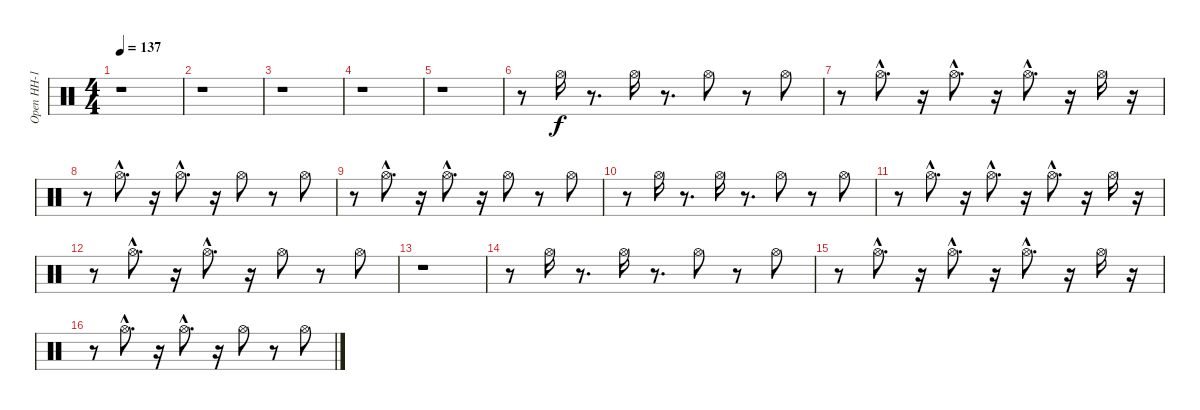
\track ("Open HH-1" "Open HH-1") {instrument percussion}
\staff {score}
\articulation defaults
\ts (4 4)
\tempo 137
\clef neutral
\ks c
r.1{dy f} |
r.1 |
r.1 |
r.1 |
r.1 |
r.8 "Hi-Hat (open)".16 r.8{d} "Hi-Hat (open)".16 r.8{d} "Hi-Hat (open)".8 r.8 "Hi-Hat (open)".8 |
r.8 "Hi-Hat (open)"{hac}.8{d} r.16 "Hi-Hat (open)"{hac}.8{d} r.16 "Hi-Hat (open)"{hac}.8{d} r.16 "Hi-Hat (open)".16 r.16 |
r.8 "Hi-Hat (open)"{hac}.8{d} r.16 "Hi-Hat (open)"{hac}.8{d} r.16 "Hi-Hat (open)".8 r.8 "Hi-Hat (open)".8 |
r.8 "Hi-Hat (open)"{hac}.8{d} r.16 "Hi-Hat (open)"{hac}.8{d} r.16 "Hi-Hat (open)".8 r.8 "Hi-Hat (open)".8 |
r.8 "Hi-Hat (open)".16 r.8{d} "Hi-Hat (open)".16 r.8{d} "Hi-Hat (open)".8 r.8 "Hi-Hat (open)".8 |
r.8 "Hi-Hat (open)"{hac}.8{d} r.16 "Hi-Hat (open)"{hac}.8{d} r.16 "Hi-Hat (open)"{hac}.8{d} r.16 "Hi-Hat (open)".16 r.16 |
r.8 "Hi-Hat (open)"{hac}.8{d} r.16 "Hi-Hat (open)"{hac}.8{d} r.16 "Hi-Hat (open)".8 r.8 "Hi-Hat (open)".8 |
r.1 |
r.8 "Hi-Hat (open)".16 r.8{d} "Hi-Hat (open)".16 r.8{d} "Hi-Hat (open)".8 r.8 "Hi-Hat (open)".8 |
r.8 "Hi-Hat (open)"{hac}.8{d} r.16 "Hi-Hat (open)"{hac}.8{d} r.16 "Hi-Hat (open)"{hac}.8{d} r.16 "Hi-Hat (open)".16 r.16 |
r.8 "Hi-Hat (open)"{hac}.8{d} r.16 "Hi-Hat (open)"{hac}.8{d} r.16 "Hi-Hat (open)".8 r.8 "Hi-Hat (open)".8
